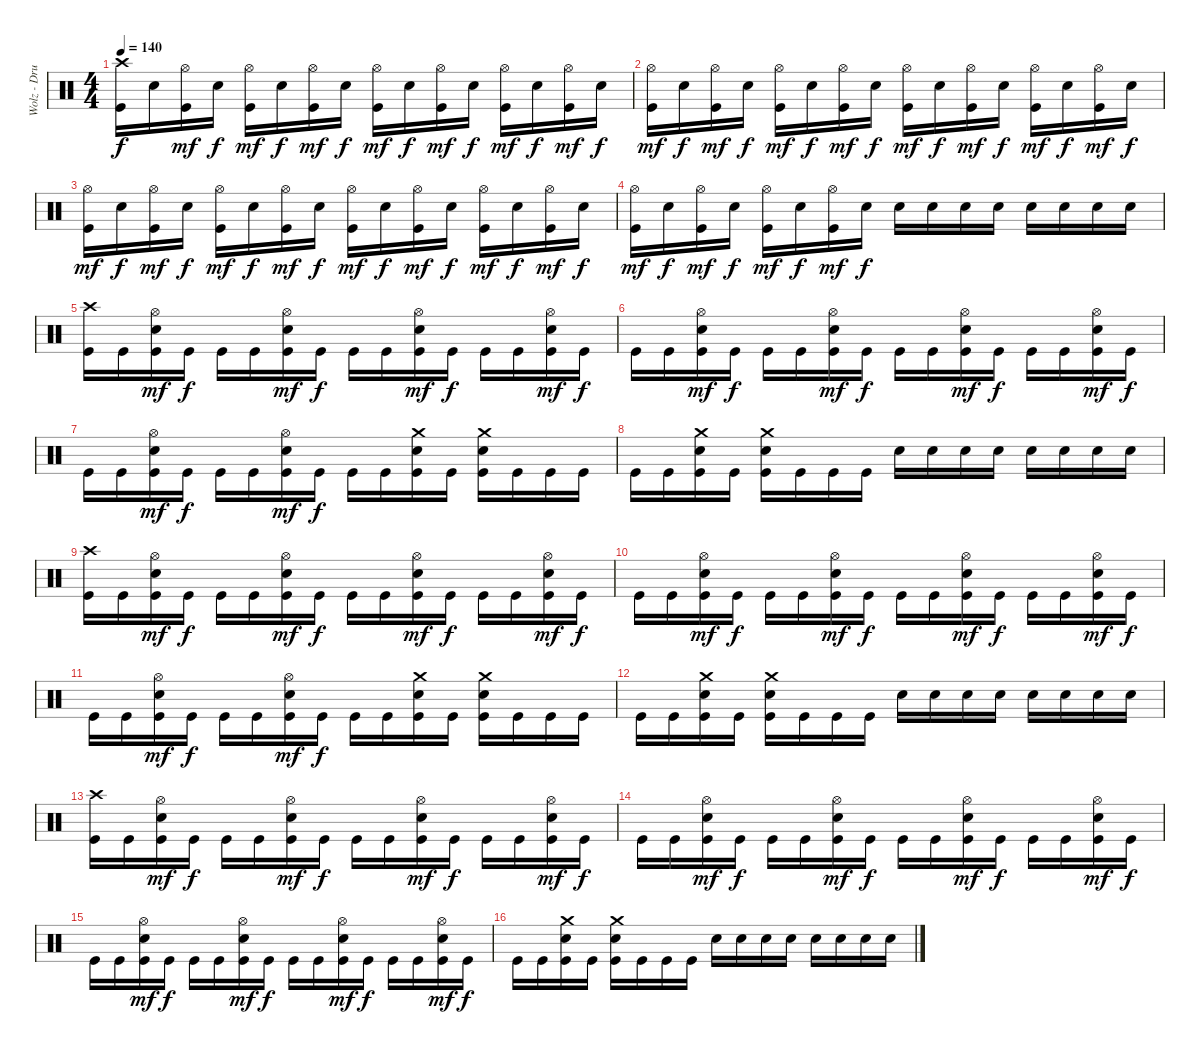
\track ("Wolz - Drums" "Wolz - Dru") {instrument percussion}
\staff {score}
\articulation defaults
\ts (4 4)
\tempo 140
\clef neutral
\ks c
("Crash high (hit)" "Kick (hit)").16{dy f} "Electric Snare (hit)".16 ("Hi-Hat (open)" "Kick (hit)").16{dy mf} "Electric Snare (hit)".16{dy f} ("Hi-Hat (open)" "Kick (hit)").16{dy mf} "Electric Snare (hit)".16{dy f} ("Hi-Hat (open)" "Kick (hit)").16{dy mf} "Electric Snare (hit)".16{dy f} ("Hi-Hat (open)" "Kick (hit)").16{dy mf} "Electric Snare (hit)".16{dy f} ("Hi-Hat (open)" "Kick (hit)").16{dy mf} "Electric Snare (hit)".16{dy f} ("Hi-Hat (open)" "Kick (hit)").16{dy mf} "Electric Snare (hit)".16{dy f} ("Hi-Hat (open)" "Kick (hit)").16{dy mf} "Electric Snare (hit)".16{dy f} |
("Hi-Hat (open)" "Kick (hit)").16{dy mf} "Electric Snare (hit)".16{dy f} ("Hi-Hat (open)" "Kick (hit)").16{dy mf} "Electric Snare (hit)".16{dy f} ("Hi-Hat (open)" "Kick (hit)").16{dy mf} "Electric Snare (hit)".16{dy f} ("Hi-Hat (open)" "Kick (hit)").16{dy mf} "Electric Snare (hit)".16{dy f} ("Hi-Hat (open)" "Kick (hit)").16{dy mf} "Electric Snare (hit)".16{dy f} ("Hi-Hat (open)" "Kick (hit)").16{dy mf} "Electric Snare (hit)".16{dy f} ("Hi-Hat (open)" "Kick (hit)").16{dy mf} "Electric Snare (hit)".16{dy f} ("Hi-Hat (open)" "Kick (hit)").16{dy mf} "Electric Snare (hit)".16{dy f} |
("Hi-Hat (open)" "Kick (hit)").16{dy mf} "Electric Snare (hit)".16{dy f} ("Hi-Hat (open)" "Kick (hit)").16{dy mf} "Electric Snare (hit)".16{dy f} ("Hi-Hat (open)" "Kick (hit)").16{dy mf} "Electric Snare (hit)".16{dy f} ("Hi-Hat (open)" "Kick (hit)").16{dy mf} "Electric Snare (hit)".16{dy f} ("Hi-Hat (open)" "Kick (hit)").16{dy mf} "Electric Snare (hit)".16{dy f} ("Hi-Hat (open)" "Kick (hit)").16{dy mf} "Electric Snare (hit)".16{dy f} ("Hi-Hat (open)" "Kick (hit)").16{dy mf} "Electric Snare (hit)".16{dy f} ("Hi-Hat (open)" "Kick (hit)").16{dy mf} "Electric Snare (hit)".16{dy f} |
("Hi-Hat (open)" "Kick (hit)").16{dy mf} "Electric Snare (hit)".16{dy f} ("Hi-Hat (open)" "Kick (hit)").16{dy mf} "Electric Snare (hit)".16{dy f} ("Hi-Hat (open)" "Kick (hit)").16{dy mf} "Electric Snare (hit)".16{dy f} ("Hi-Hat (open)" "Kick (hit)").16{dy mf} "Electric Snare (hit)".16{dy f} "Electric Snare (hit)".16 "Electric Snare (hit)".16 "Electric Snare (hit)".16 "Electric Snare (hit)".16 "Electric Snare (hit)".16 "Electric Snare (hit)".16 "Electric Snare (hit)".16 "Electric Snare (hit)".16 |
("Crash high (hit)" "Kick (hit)").16 "Kick (hit)".16 ("Hi-Hat (open)" "Electric Snare (hit)" "Kick (hit)").16{dy mf} "Kick (hit)".16{dy f} "Kick (hit)".16 "Kick (hit)".16 ("Hi-Hat (open)" "Electric Snare (hit)" "Kick (hit)").16{dy mf} "Kick (hit)".16{dy f} "Kick (hit)".16 "Kick (hit)".16 ("Hi-Hat (open)" "Electric Snare (hit)" "Kick (hit)").16{dy mf} "Kick (hit)".16{dy f} "Kick (hit)".16 "Kick (hit)".16 ("Hi-Hat (open)" "Electric Snare (hit)" "Kick (hit)").16{dy mf} "Kick (hit)".16{dy f} |
"Kick (hit)".16 "Kick (hit)".16 ("Hi-Hat (open)" "Electric Snare (hit)" "Kick (hit)").16{dy mf} "Kick (hit)".16{dy f} "Kick (hit)".16 "Kick (hit)".16 ("Hi-Hat (open)" "Electric Snare (hit)" "Kick (hit)").16{dy mf} "Kick (hit)".16{dy f} "Kick (hit)".16 "Kick (hit)".16 ("Hi-Hat (open)" "Electric Snare (hit)" "Kick (hit)").16{dy mf} "Kick (hit)".16{dy f} "Kick (hit)".16 "Kick (hit)".16 ("Hi-Hat (open)" "Electric Snare (hit)" "Kick (hit)").16{dy mf} "Kick (hit)".16{dy f} |
"Kick (hit)".16 "Kick (hit)".16 ("Hi-Hat (open)" "Electric Snare (hit)" "Kick (hit)").16{dy mf} "Kick (hit)".16{dy f} "Kick (hit)".16 "Kick (hit)".16 ("Hi-Hat (open)" "Electric Snare (hit)" "Kick (hit)").16{dy mf} "Kick (hit)".16{dy f} "Kick (hit)".16 "Kick (hit)".16 ("Crash medium (hit)" "Electric Snare (hit)" "Kick (hit)").16 "Kick (hit)".16 ("Crash medium (hit)" "Electric Snare (hit)" "Kick (hit)").16 "Kick (hit)".16 "Kick (hit)".16 "Kick (hit)".16 |
"Kick (hit)".16 "Kick (hit)".16 ("Crash medium (hit)" "Electric Snare (hit)" "Kick (hit)").16 "Kick (hit)".16 ("Crash medium (hit)" "Electric Snare (hit)" "Kick (hit)").16 "Kick (hit)".16 "Kick (hit)".16 "Kick (hit)".16 "Electric Snare (hit)".16 "Electric Snare (hit)".16 "Electric Snare (hit)".16 "Electric Snare (hit)".16 "Electric Snare (hit)".16 "Electric Snare (hit)".16 "Electric Snare (hit)".16 "Electric Snare (hit)".16 |
("Crash high (hit)" "Kick (hit)").16 "Kick (hit)".16 ("Hi-Hat (open)" "Electric Snare (hit)" "Kick (hit)").16{dy mf} "Kick (hit)".16{dy f} "Kick (hit)".16 "Kick (hit)".16 ("Hi-Hat (open)" "Electric Snare (hit)" "Kick (hit)").16{dy mf} "Kick (hit)".16{dy f} "Kick (hit)".16 "Kick (hit)".16 ("Hi-Hat (open)" "Electric Snare (hit)" "Kick (hit)").16{dy mf} "Kick (hit)".16{dy f} "Kick (hit)".16 "Kick (hit)".16 ("Hi-Hat (open)" "Electric Snare (hit)" "Kick (hit)").16{dy mf} "Kick (hit)".16{dy f} |
"Kick (hit)".16 "Kick (hit)".16 ("Hi-Hat (open)" "Electric Snare (hit)" "Kick (hit)").16{dy mf} "Kick (hit)".16{dy f} "Kick (hit)".16 "Kick (hit)".16 ("Hi-Hat (open)" "Electric Snare (hit)" "Kick (hit)").16{dy mf} "Kick (hit)".16{dy f} "Kick (hit)".16 "Kick (hit)".16 ("Hi-Hat (open)" "Electric Snare (hit)" "Kick (hit)").16{dy mf} "Kick (hit)".16{dy f} "Kick (hit)".16 "Kick (hit)".16 ("Hi-Hat (open)" "Electric Snare (hit)" "Kick (hit)").16{dy mf} "Kick (hit)".16{dy f} |
"Kick (hit)".16 "Kick (hit)".16 ("Hi-Hat (open)" "Electric Snare (hit)" "Kick (hit)").16{dy mf} "Kick (hit)".16{dy f} "Kick (hit)".16 "Kick (hit)".16 ("Hi-Hat (open)" "Electric Snare (hit)" "Kick (hit)").16{dy mf} "Kick (hit)".16{dy f} "Kick (hit)".16 "Kick (hit)".16 ("Crash medium (hit)" "Electric Snare (hit)" "Kick (hit)").16 "Kick (hit)".16 ("Crash medium (hit)" "Electric Snare (hit)" "Kick (hit)").16 "Kick (hit)".16 "Kick (hit)".16 "Kick (hit)".16 |
"Kick (hit)".16 "Kick (hit)".16 ("Crash medium (hit)" "Electric Snare (hit)" "Kick (hit)").16 "Kick (hit)".16 ("Crash medium (hit)" "Electric Snare (hit)" "Kick (hit)").16 "Kick (hit)".16 "Kick (hit)".16 "Kick (hit)".16 "Electric Snare (hit)".16 "Electric Snare (hit)".16 "Electric Snare (hit)".16 "Electric Snare (hit)".16 "Electric Snare (hit)".16 "Electric Snare (hit)".16 "Electric Snare (hit)".16 "Electric Snare (hit)".16 |
("Crash high (hit)" "Kick (hit)").16 "Kick (hit)".16 ("Hi-Hat (open)" "Electric Snare (hit)" "Kick (hit)").16{dy mf} "Kick (hit)".16{dy f} "Kick (hit)".16 "Kick (hit)".16 ("Hi-Hat (open)" "Electric Snare (hit)" "Kick (hit)").16{dy mf} "Kick (hit)".16{dy f} "Kick (hit)".16 "Kick (hit)".16 ("Hi-Hat (open)" "Electric Snare (hit)" "Kick (hit)").16{dy mf} "Kick (hit)".16{dy f} "Kick (hit)".16 "Kick (hit)".16 ("Hi-Hat (open)" "Electric Snare (hit)" "Kick (hit)").16{dy mf} "Kick (hit)".16{dy f} |
"Kick (hit)".16 "Kick (hit)".16 ("Hi-Hat (open)" "Electric Snare (hit)" "Kick (hit)").16{dy mf} "Kick (hit)".16{dy f} "Kick (hit)".16 "Kick (hit)".16 ("Hi-Hat (open)" "Electric Snare (hit)" "Kick (hit)").16{dy mf} "Kick (hit)".16{dy f} "Kick (hit)".16 "Kick (hit)".16 ("Hi-Hat (open)" "Electric Snare (hit)" "Kick (hit)").16{dy mf} "Kick (hit)".16{dy f} "Kick (hit)".16 "Kick (hit)".16 ("Hi-Hat (open)" "Electric Snare (hit)" "Kick (hit)").16{dy mf} "Kick (hit)".16{dy f} |
"Kick (hit)".16 "Kick (hit)".16 ("Hi-Hat (open)" "Electric Snare (hit)" "Kick (hit)").16{dy mf} "Kick (hit)".16{dy f} "Kick (hit)".16 "Kick (hit)".16 ("Hi-Hat (open)" "Electric Snare (hit)" "Kick (hit)").16{dy mf} "Kick (hit)".16{dy f} "Kick (hit)".16 "Kick (hit)".16 ("Hi-Hat (open)" "Electric Snare (hit)" "Kick (hit)").16{dy mf} "Kick (hit)".16{dy f} "Kick (hit)".16 "Kick (hit)".16 ("Hi-Hat (open)" "Electric Snare (hit)" "Kick (hit)").16{dy mf} "Kick (hit)".16{dy f} |
"Kick (hit)".16 "Kick (hit)".16 ("Crash medium (hit)" "Electric Snare (hit)" "Kick (hit)").16 "Kick (hit)".16 ("Crash medium (hit)" "Electric Snare (hit)" "Kick (hit)").16 "Kick (hit)".16 "Kick (hit)".16 "Kick (hit)".16 "Electric Snare (hit)".16 "Electric Snare (hit)".16 "Electric Snare (hit)".16 "Electric Snare (hit)".16 "Electric Snare (hit)".16 "Electric Snare (hit)".16 "Electric Snare (hit)".16 "Electric Snare (hit)".16
